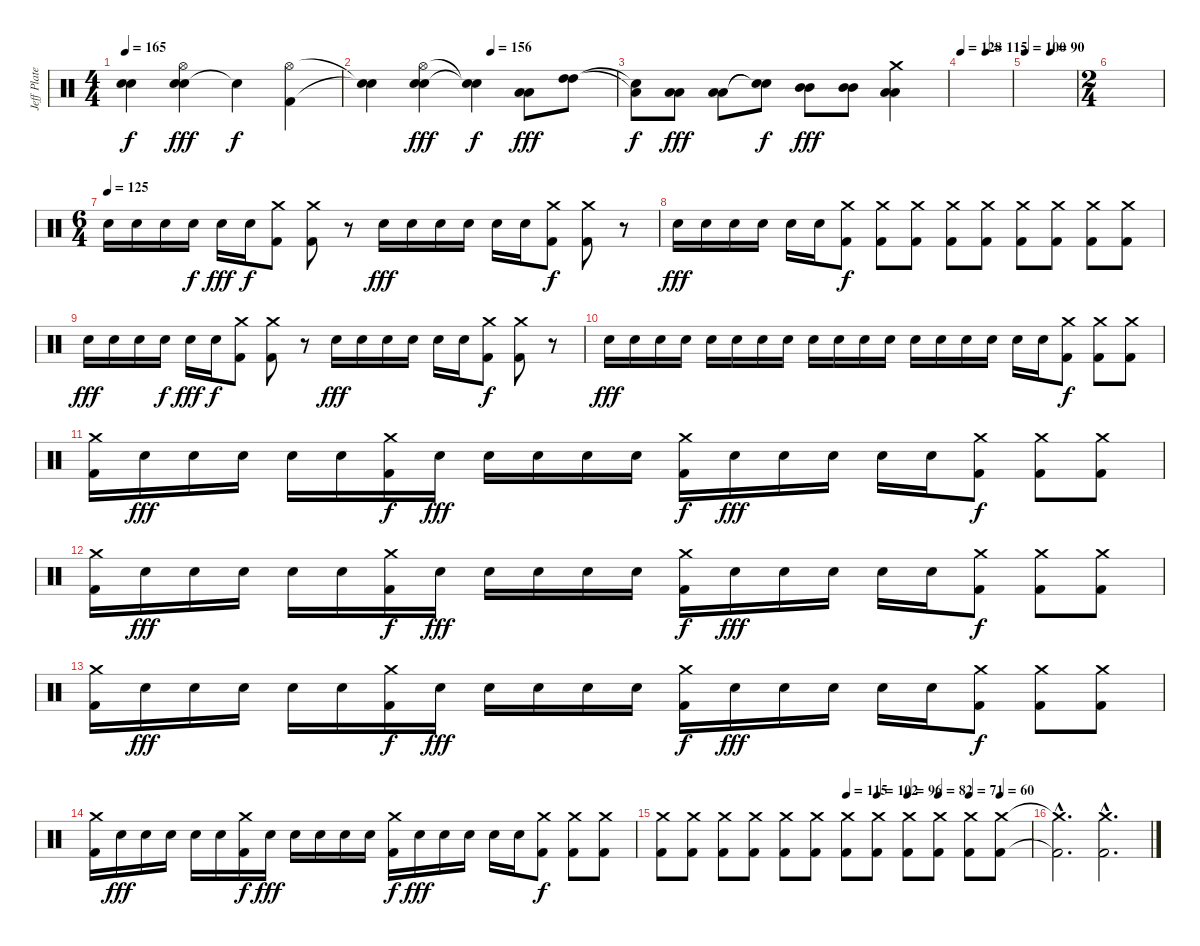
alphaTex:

\track ("Jeff Plate" "Jeff Plate") {instrument percussion}
\staff {score}
\articulation defaults
\ts (4 4)
\tempo 165
\clef neutral
\ks c
("Snare (hit)"{t} "Snare (hit)"{t}).4{dy f} ("Electric Snare (hit)" "Hi-Hat (open)" "Electric Snare (hit)").4{dy fff} "Snare (hit)"{t}.4{dy f} ("Hi-Hat (open)" "Kick (hit) 2").4 |
\tempo (156 0.5)
("Snare (hit)"{t} "Snare (hit)"{t}).4 ("Hi-Hat (open)" "Electric Snare (hit)" "Electric Snare (hit)").4{dy fff} ("Snare (hit)"{t} "Snare (hit)"{t}).4{dy f} ("Low Tom (hit)" "Low Tom (hit)").8{dy fff} ("High Tom (hit)" "High Tom (hit)").8 |
("Snare (hit)"{t} "Low Tom (hit)"{t}).8{dy f} ("Low Tom (hit)" "Low Tom (hit)").8{dy fff} ("Low Tom (hit)" "Low Tom (hit)").8 ("Snare (hit)"{t} "Snare (hit)"{t}).8{dy f} ("Mid Tom (hit)" "Mid Tom (hit)").8{dy fff} ("Mid Tom (hit)" "Mid Tom (hit)").8 ("Crash medium (hit)" "Low Tom (hit)" "Low Tom (hit)").4 |
\tempo 128
\tempo (115 0.5)
|
\tempo 100
\tempo (90 0.5)
|
\ts (2 4)
|
\ts (6 4)
\tempo (125)
"Electric Snare (hit)".16 "Electric Snare (hit)".16 "Electric Snare (hit)".16 "Electric Snare (hit)".16{dy f} "Electric Snare (hit)".16{dy fff} "Electric Snare (hit)".16{dy f} ("Crash medium (hit)" "Kick (hit) 2").8 ("Crash medium (hit)" "Kick (hit) 2").8 r.8 "Electric Snare (hit)".16{dy fff} "Electric Snare (hit)".16 "Electric Snare (hit)".16 "Electric Snare (hit)".16 "Electric Snare (hit)".16 "Electric Snare (hit)".16 ("Crash medium (hit)" "Kick (hit) 2").8{dy f} ("Crash medium (hit)" "Kick (hit) 2").8 r.8 |
"Electric Snare (hit)".16{dy fff} "Electric Snare (hit)".16 "Electric Snare (hit)".16 "Electric Snare (hit)".16 "Electric Snare (hit)".16 "Electric Snare (hit)".16 ("Crash medium (hit)" "Kick (hit) 2").8{dy f} ("Crash medium (hit)" "Kick (hit) 2").8 ("Crash medium (hit)" "Kick (hit) 2").8 ("Crash medium (hit)" "Kick (hit) 2").8 ("Crash medium (hit)" "Kick (hit) 2").8 ("Crash medium (hit)" "Kick (hit) 2").8 ("Crash medium (hit)" "Kick (hit) 2").8 ("Crash medium (hit)" "Kick (hit) 2").8 ("Crash medium (hit)" "Kick (hit) 2").8 |
"Electric Snare (hit)".16{dy fff} "Electric Snare (hit)".16 "Electric Snare (hit)".16 "Electric Snare (hit)".16{dy f} "Electric Snare (hit)".16{dy fff} "Electric Snare (hit)".16{dy f} ("Crash medium (hit)" "Kick (hit) 2").8 ("Crash medium (hit)" "Kick (hit) 2").8 r.8 "Electric Snare (hit)".16{dy fff} "Electric Snare (hit)".16 "Electric Snare (hit)".16 "Electric Snare (hit)".16 "Electric Snare (hit)".16 "Electric Snare (hit)".16 ("Crash medium (hit)" "Kick (hit) 2").8{dy f} ("Crash medium (hit)" "Kick (hit) 2").8 r.8 |
"Electric Snare (hit)".16{dy fff} "Electric Snare (hit)".16 "Electric Snare (hit)".16 "Electric Snare (hit)".16 "Electric Snare (hit)".16 "Electric Snare (hit)".16 "Electric Snare (hit)".16 "Electric Snare (hit)".16 "Electric Snare (hit)".16 "Electric Snare (hit)".16 "Electric Snare (hit)".16 "Electric Snare (hit)".16 "Electric Snare (hit)".16 "Electric Snare (hit)".16 "Electric Snare (hit)".16 "Electric Snare (hit)".16 "Electric Snare (hit)".16 "Electric Snare (hit)".16 ("Crash medium (hit)" "Kick (hit) 2").8{dy f} ("Crash medium (hit)" "Kick (hit) 2").8 ("Crash medium (hit)" "Kick (hit) 2").8 |
("Crash medium (hit)" "Kick (hit) 2").16 "Electric Snare (hit)".16{dy fff} "Electric Snare (hit)".16 "Electric Snare (hit)".16 "Electric Snare (hit)".16 "Electric Snare (hit)".16 ("Crash medium (hit)" "Kick (hit) 2").16{dy f} "Electric Snare (hit)".16{dy fff} "Electric Snare (hit)".16 "Electric Snare (hit)".16 "Electric Snare (hit)".16 "Electric Snare (hit)".16 ("Crash medium (hit)" "Kick (hit) 2").16{dy f} "Electric Snare (hit)".16{dy fff} "Electric Snare (hit)".16 "Electric Snare (hit)".16 "Electric Snare (hit)".16 "Electric Snare (hit)".16 ("Crash medium (hit)" "Kick (hit) 2").8{dy f} ("Crash medium (hit)" "Kick (hit) 2").8 ("Crash medium (hit)" "Kick (hit) 2").8 |
("Crash medium (hit)" "Kick (hit) 2").16 "Electric Snare (hit)".16{dy fff} "Electric Snare (hit)".16 "Electric Snare (hit)".16 "Electric Snare (hit)".16 "Electric Snare (hit)".16 ("Crash medium (hit)" "Kick (hit) 2").16{dy f} "Electric Snare (hit)".16{dy fff} "Electric Snare (hit)".16 "Electric Snare (hit)".16 "Electric Snare (hit)".16 "Electric Snare (hit)".16 ("Crash medium (hit)" "Kick (hit) 2").16{dy f} "Electric Snare (hit)".16{dy fff} "Electric Snare (hit)".16 "Electric Snare (hit)".16 "Electric Snare (hit)".16 "Electric Snare (hit)".16 ("Crash medium (hit)" "Kick (hit) 2").8{dy f} ("Crash medium (hit)" "Kick (hit) 2").8 ("Crash medium (hit)" "Kick (hit) 2").8 |
("Crash medium (hit)" "Kick (hit) 2").16 "Electric Snare (hit)".16{dy fff} "Electric Snare (hit)".16 "Electric Snare (hit)".16 "Electric Snare (hit)".16 "Electric Snare (hit)".16 ("Crash medium (hit)" "Kick (hit) 2").16{dy f} "Electric Snare (hit)".16{dy fff} "Electric Snare (hit)".16 "Electric Snare (hit)".16 "Electric Snare (hit)".16 "Electric Snare (hit)".16 ("Crash medium (hit)" "Kick (hit) 2").16{dy f} "Electric Snare (hit)".16{dy fff} "Electric Snare (hit)".16 "Electric Snare (hit)".16 "Electric Snare (hit)".16 "Electric Snare (hit)".16 ("Crash medium (hit)" "Kick (hit) 2").8{dy f} ("Crash medium (hit)" "Kick (hit) 2").8 ("Crash medium (hit)" "Kick (hit) 2").8 |
("Crash medium (hit)" "Kick (hit) 2").16 "Electric Snare (hit)".16{dy fff} "Electric Snare (hit)".16 "Electric Snare (hit)".16 "Electric Snare (hit)".16 "Electric Snare (hit)".16 ("Crash medium (hit)" "Kick (hit) 2").16{dy f} "Electric Snare (hit)".16{dy fff} "Electric Snare (hit)".16 "Electric Snare (hit)".16 "Electric Snare (hit)".16 "Electric Snare (hit)".16 ("Crash medium (hit)" "Kick (hit) 2").16{dy f} "Electric Snare (hit)".16{dy fff} "Electric Snare (hit)".16 "Electric Snare (hit)".16 "Electric Snare (hit)".16 "Electric Snare (hit)".16 ("Crash medium (hit)" "Kick (hit) 2").8{dy f} ("Crash medium (hit)" "Kick (hit) 2").8 ("Crash medium (hit)" "Kick (hit) 2").8 |
\tempo (115 0.5)
\tempo (102 0.5833333333333334)
\tempo (96 0.6666666666666666)
\tempo (82 0.75)
\tempo (71 0.8333333333333334)
\tempo (60 0.9166666666666666)
("Crash medium (hit)" "Kick (hit) 2").8 ("Crash medium (hit)" "Kick (hit) 2").8 ("Crash medium (hit)" "Kick (hit) 2").8 ("Crash medium (hit)" "Kick (hit) 2").8 ("Crash medium (hit)" "Kick (hit) 2").8 ("Crash medium (hit)" "Kick (hit) 2").8 ("Crash medium (hit)" "Kick (hit) 2").8 ("Crash medium (hit)" "Kick (hit) 2").8 ("Crash medium (hit)" "Kick (hit) 2").8 ("Crash medium (hit)" "Kick (hit) 2").8 ("Crash medium (hit)" "Kick (hit) 2").8 ("Crash medium (hit)" "Kick (hit) 2").8 |
("Crash medium (hit)"{hac t} "Kick (hit) 2"{hac t}).2{d} ("Crash medium (hit)"{hac} "Kick (hit) 2"{hac}).2{d}
